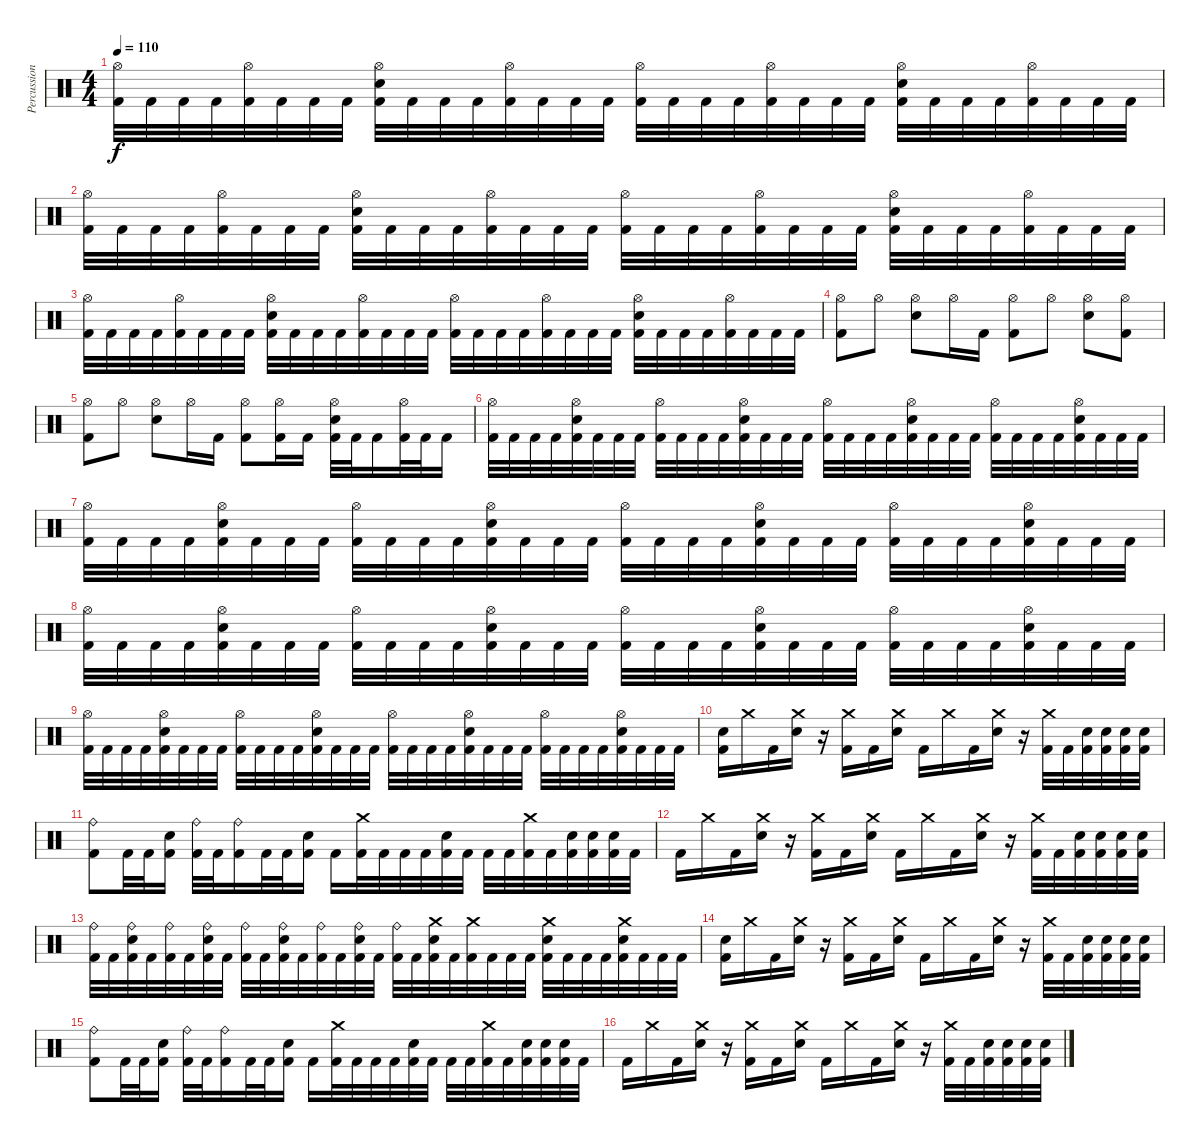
\track ("Percussion" "Percussion") {instrument percussion}
\staff {score}
\articulation defaults
\ts (4 4)
\tempo 110
\clef neutral
\ks c
("Hi-Hat (open)" "Kick (hit) 2").32{dy f} "Kick (hit) 2".32 "Kick (hit) 2".32 "Kick (hit) 2".32 ("Hi-Hat (open)" "Kick (hit) 2").32 "Kick (hit) 2".32 "Kick (hit) 2".32 "Kick (hit) 2".32 ("Hi-Hat (open)" "Electric Snare (hit)" "Kick (hit) 2").32 "Kick (hit) 2".32 "Kick (hit) 2".32 "Kick (hit) 2".32 ("Hi-Hat (open)" "Kick (hit) 2").32 "Kick (hit) 2".32 "Kick (hit) 2".32 "Kick (hit) 2".32 ("Hi-Hat (open)" "Kick (hit) 2").32 "Kick (hit) 2".32 "Kick (hit) 2".32 "Kick (hit) 2".32 ("Hi-Hat (open)" "Kick (hit) 2").32 "Kick (hit) 2".32 "Kick (hit) 2".32 "Kick (hit) 2".32 ("Hi-Hat (open)" "Electric Snare (hit)" "Kick (hit) 2").32 "Kick (hit) 2".32 "Kick (hit) 2".32 "Kick (hit) 2".32 ("Hi-Hat (open)" "Kick (hit) 2").32 "Kick (hit) 2".32 "Kick (hit) 2".32 "Kick (hit) 2".32 |
("Hi-Hat (open)" "Kick (hit) 2").32 "Kick (hit) 2".32 "Kick (hit) 2".32 "Kick (hit) 2".32 ("Hi-Hat (open)" "Kick (hit) 2").32 "Kick (hit) 2".32 "Kick (hit) 2".32 "Kick (hit) 2".32 ("Hi-Hat (open)" "Electric Snare (hit)" "Kick (hit) 2").32 "Kick (hit) 2".32 "Kick (hit) 2".32 "Kick (hit) 2".32 ("Hi-Hat (open)" "Kick (hit) 2").32 "Kick (hit) 2".32 "Kick (hit) 2".32 "Kick (hit) 2".32 ("Hi-Hat (open)" "Kick (hit) 2").32 "Kick (hit) 2".32 "Kick (hit) 2".32 "Kick (hit) 2".32 ("Hi-Hat (open)" "Kick (hit) 2").32 "Kick (hit) 2".32 "Kick (hit) 2".32 "Kick (hit) 2".32 ("Hi-Hat (open)" "Electric Snare (hit)" "Kick (hit) 2").32 "Kick (hit) 2".32 "Kick (hit) 2".32 "Kick (hit) 2".32 ("Hi-Hat (open)" "Kick (hit) 2").32 "Kick (hit) 2".32 "Kick (hit) 2".32 "Kick (hit) 2".32 |
("Hi-Hat (open)" "Kick (hit) 2").32 "Kick (hit) 2".32 "Kick (hit) 2".32 "Kick (hit) 2".32 ("Hi-Hat (open)" "Kick (hit) 2").32 "Kick (hit) 2".32 "Kick (hit) 2".32 "Kick (hit) 2".32 ("Hi-Hat (open)" "Electric Snare (hit)" "Kick (hit) 2").32 "Kick (hit) 2".32 "Kick (hit) 2".32 "Kick (hit) 2".32 ("Hi-Hat (open)" "Kick (hit) 2").32 "Kick (hit) 2".32 "Kick (hit) 2".32 "Kick (hit) 2".32 ("Hi-Hat (open)" "Kick (hit) 2").32 "Kick (hit) 2".32 "Kick (hit) 2".32 "Kick (hit) 2".32 ("Hi-Hat (open)" "Kick (hit) 2").32 "Kick (hit) 2".32 "Kick (hit) 2".32 "Kick (hit) 2".32 ("Hi-Hat (open)" "Electric Snare (hit)" "Kick (hit) 2").32 "Kick (hit) 2".32 "Kick (hit) 2".32 "Kick (hit) 2".32 ("Hi-Hat (open)" "Kick (hit) 2").32 "Kick (hit) 2".32 "Kick (hit) 2".32 "Kick (hit) 2".32 |
("Hi-Hat (open)" "Kick (hit) 2").8 "Hi-Hat (open)".8 ("Hi-Hat (open)" "Electric Snare (hit)").8 "Hi-Hat (open)".16 "Kick (hit) 2".16 ("Hi-Hat (open)" "Kick (hit) 2").8 "Hi-Hat (open)".8 ("Hi-Hat (open)" "Electric Snare (hit)").8 ("Hi-Hat (open)" "Kick (hit) 2").8 |
("Hi-Hat (open)" "Kick (hit) 2").8 "Hi-Hat (open)".8 ("Hi-Hat (open)" "Electric Snare (hit)").8 "Hi-Hat (open)".16 "Kick (hit) 2".16 ("Hi-Hat (open)" "Kick (hit) 2").8 ("Hi-Hat (open)" "Kick (hit) 2").16 "Kick (hit) 2".16 ("Hi-Hat (open)" "Electric Snare (hit)" "Kick (hit) 2").32 "Kick (hit) 2".32 "Kick (hit) 2".16 ("Hi-Hat (open)" "Kick (hit) 2").32 "Kick (hit) 2".32 "Kick (hit) 2".16 |
("Hi-Hat (open)" "Kick (hit) 2").32 "Kick (hit) 2".32 "Kick (hit) 2".32 "Kick (hit) 2".32 ("Hi-Hat (open)" "Electric Snare (hit)" "Kick (hit) 2").32 "Kick (hit) 2".32 "Kick (hit) 2".32 "Kick (hit) 2".32 ("Hi-Hat (open)" "Kick (hit) 2").32 "Kick (hit) 2".32 "Kick (hit) 2".32 "Kick (hit) 2".32 ("Hi-Hat (open)" "Electric Snare (hit)" "Kick (hit) 2").32 "Kick (hit) 2".32 "Kick (hit) 2".32 "Kick (hit) 2".32 ("Hi-Hat (open)" "Kick (hit) 2").32 "Kick (hit) 2".32 "Kick (hit) 2".32 "Kick (hit) 2".32 ("Hi-Hat (open)" "Electric Snare (hit)" "Kick (hit) 2").32 "Kick (hit) 2".32 "Kick (hit) 2".32 "Kick (hit) 2".32 ("Hi-Hat (open)" "Kick (hit) 2").32 "Kick (hit) 2".32 "Kick (hit) 2".32 "Kick (hit) 2".32 ("Hi-Hat (open)" "Electric Snare (hit)" "Kick (hit) 2").32 "Kick (hit) 2".32 "Kick (hit) 2".32 "Kick (hit) 2".32 |
("Hi-Hat (open)" "Kick (hit) 2").32 "Kick (hit) 2".32 "Kick (hit) 2".32 "Kick (hit) 2".32 ("Hi-Hat (open)" "Electric Snare (hit)" "Kick (hit) 2").32 "Kick (hit) 2".32 "Kick (hit) 2".32 "Kick (hit) 2".32 ("Hi-Hat (open)" "Kick (hit) 2").32 "Kick (hit) 2".32 "Kick (hit) 2".32 "Kick (hit) 2".32 ("Hi-Hat (open)" "Electric Snare (hit)" "Kick (hit) 2").32 "Kick (hit) 2".32 "Kick (hit) 2".32 "Kick (hit) 2".32 ("Hi-Hat (open)" "Kick (hit) 2").32 "Kick (hit) 2".32 "Kick (hit) 2".32 "Kick (hit) 2".32 ("Hi-Hat (open)" "Electric Snare (hit)" "Kick (hit) 2").32 "Kick (hit) 2".32 "Kick (hit) 2".32 "Kick (hit) 2".32 ("Hi-Hat (open)" "Kick (hit) 2").32 "Kick (hit) 2".32 "Kick (hit) 2".32 "Kick (hit) 2".32 ("Hi-Hat (open)" "Electric Snare (hit)" "Kick (hit) 2").32 "Kick (hit) 2".32 "Kick (hit) 2".32 "Kick (hit) 2".32 |
("Hi-Hat (open)" "Kick (hit) 2").32 "Kick (hit) 2".32 "Kick (hit) 2".32 "Kick (hit) 2".32 ("Hi-Hat (open)" "Electric Snare (hit)" "Kick (hit) 2").32 "Kick (hit) 2".32 "Kick (hit) 2".32 "Kick (hit) 2".32 ("Hi-Hat (open)" "Kick (hit) 2").32 "Kick (hit) 2".32 "Kick (hit) 2".32 "Kick (hit) 2".32 ("Hi-Hat (open)" "Electric Snare (hit)" "Kick (hit) 2").32 "Kick (hit) 2".32 "Kick (hit) 2".32 "Kick (hit) 2".32 ("Hi-Hat (open)" "Kick (hit) 2").32 "Kick (hit) 2".32 "Kick (hit) 2".32 "Kick (hit) 2".32 ("Hi-Hat (open)" "Electric Snare (hit)" "Kick (hit) 2").32 "Kick (hit) 2".32 "Kick (hit) 2".32 "Kick (hit) 2".32 ("Hi-Hat (open)" "Kick (hit) 2").32 "Kick (hit) 2".32 "Kick (hit) 2".32 "Kick (hit) 2".32 ("Hi-Hat (open)" "Electric Snare (hit)" "Kick (hit) 2").32 "Kick (hit) 2".32 "Kick (hit) 2".32 "Kick (hit) 2".32 |
("Hi-Hat (open)" "Kick (hit) 2").32 "Kick (hit) 2".32 "Kick (hit) 2".32 "Kick (hit) 2".32 ("Hi-Hat (open)" "Electric Snare (hit)" "Kick (hit) 2").32 "Kick (hit) 2".32 "Kick (hit) 2".32 "Kick (hit) 2".32 ("Hi-Hat (open)" "Kick (hit) 2").32 "Kick (hit) 2".32 "Kick (hit) 2".32 "Kick (hit) 2".32 ("Hi-Hat (open)" "Electric Snare (hit)" "Kick (hit) 2").32 "Kick (hit) 2".32 "Kick (hit) 2".32 "Kick (hit) 2".32 ("Hi-Hat (open)" "Kick (hit) 2").32 "Kick (hit) 2".32 "Kick (hit) 2".32 "Kick (hit) 2".32 ("Hi-Hat (open)" "Electric Snare (hit)" "Kick (hit) 2").32 "Kick (hit) 2".32 "Kick (hit) 2".32 "Kick (hit) 2".32 ("Hi-Hat (open)" "Kick (hit) 2").32 "Kick (hit) 2".32 "Kick (hit) 2".32 "Kick (hit) 2".32 ("Hi-Hat (open)" "Electric Snare (hit)" "Kick (hit) 2").32 "Kick (hit) 2".32 "Kick (hit) 2".32 "Kick (hit) 2".32 |
("Electric Snare (hit)" "Kick (hit) 2").16 "Crash medium (hit)".16 "Kick (hit) 2".16 ("Crash medium (hit)" "Electric Snare (hit)").16 r.16 ("Crash medium (hit)" "Kick (hit) 2").16 "Kick (hit) 2".16 ("Crash medium (hit)" "Electric Snare (hit)").16 "Kick (hit) 2".16 "Crash medium (hit)".16 "Kick (hit) 2".16 ("Crash medium (hit)" "Electric Snare (hit)").16 r.16 ("Crash medium (hit)" "Kick (hit) 2").32 "Kick (hit) 2".32 ("Electric Snare (hit)" "Kick (hit) 2").32 ("Electric Snare (hit)" "Kick (hit) 2").32 ("Electric Snare (hit)" "Kick (hit) 2").32 ("Electric Snare (hit)" "Kick (hit) 2").32 |
("Ride (bell)" "Kick (hit) 2").8 "Kick (hit) 2".32 "Kick (hit) 2".32 ("Electric Snare (hit)" "Kick (hit) 2").16 ("Ride (bell)" "Kick (hit) 2").32 "Kick (hit) 2".32 ("Ride (bell)" "Kick (hit) 2").16 "Kick (hit) 2".32 "Kick (hit) 2".32 ("Electric Snare (hit)" "Kick (hit) 2").16 "Kick (hit) 2".16 ("Crash medium (hit)" "Kick (hit) 2").32 "Kick (hit) 2".32 "Kick (hit) 2".32 "Kick (hit) 2".32 ("Electric Snare (hit)" "Kick (hit) 2").32 "Kick (hit) 2".32 "Kick (hit) 2".32 "Kick (hit) 2".32 ("Crash medium (hit)" "Kick (hit) 2").32 "Kick (hit) 2".32 ("Electric Snare (hit)" "Kick (hit) 2").32 ("Electric Snare (hit)" "Kick (hit) 2").32 ("Electric Snare (hit)" "Kick (hit) 2").32 "Kick (hit) 2".32 |
"Kick (hit) 2".16 "Crash medium (hit)".16 "Kick (hit) 2".16 ("Crash medium (hit)" "Electric Snare (hit)").16 r.16 ("Crash medium (hit)" "Kick (hit) 2").16 "Kick (hit) 2".16 ("Crash medium (hit)" "Electric Snare (hit)").16 "Kick (hit) 2".16 "Crash medium (hit)".16 "Kick (hit) 2".16 ("Crash medium (hit)" "Electric Snare (hit)").16 r.16 ("Crash medium (hit)" "Kick (hit) 2").32 "Kick (hit) 2".32 ("Electric Snare (hit)" "Kick (hit) 2").32 ("Electric Snare (hit)" "Kick (hit) 2").32 ("Electric Snare (hit)" "Kick (hit) 2").32 ("Electric Snare (hit)" "Kick (hit) 2").32 |
("Ride (bell)" "Kick (hit) 2").32 "Kick (hit) 2".32 ("Ride (bell)" "Electric Snare (hit)" "Kick (hit) 2").32 "Kick (hit) 2".32 ("Ride (bell)" "Kick (hit) 2").32 "Kick (hit) 2".32 ("Ride (bell)" "Electric Snare (hit)" "Kick (hit) 2").32 "Kick (hit) 2".32 ("Ride (bell)" "Kick (hit) 2").32 "Kick (hit) 2".32 ("Ride (bell)" "Electric Snare (hit)" "Kick (hit) 2").32 "Kick (hit) 2".32 ("Ride (bell)" "Kick (hit) 2").32 "Kick (hit) 2".32 ("Ride (bell)" "Electric Snare (hit)" "Kick (hit) 2").32 "Kick (hit) 2".32 ("Ride (bell)" "Kick (hit) 2").32 "Kick (hit) 2".32 ("Crash medium (hit)" "Electric Snare (hit)" "Kick (hit) 2").32 "Kick (hit) 2".32 ("Crash medium (hit)" "Kick (hit) 2").32 "Kick (hit) 2".32 "Kick (hit) 2".32 "Kick (hit) 2".32 ("Crash medium (hit)" "Electric Snare (hit)" "Kick (hit) 2").32 "Kick (hit) 2".32 "Kick (hit) 2".32 "Kick (hit) 2".32 ("Crash medium (hit)" "Electric Snare (hit)" "Kick (hit) 2").32 "Kick (hit) 2".32 "Kick (hit) 2".32 "Kick (hit) 2".32 |
("Electric Snare (hit)" "Kick (hit) 2").16 "Crash medium (hit)".16 "Kick (hit) 2".16 ("Crash medium (hit)" "Electric Snare (hit)").16 r.16 ("Crash medium (hit)" "Kick (hit) 2").16 "Kick (hit) 2".16 ("Crash medium (hit)" "Electric Snare (hit)").16 "Kick (hit) 2".16 "Crash medium (hit)".16 "Kick (hit) 2".16 ("Crash medium (hit)" "Electric Snare (hit)").16 r.16 ("Crash medium (hit)" "Kick (hit) 2").32 "Kick (hit) 2".32 ("Electric Snare (hit)" "Kick (hit) 2").32 ("Electric Snare (hit)" "Kick (hit) 2").32 ("Electric Snare (hit)" "Kick (hit) 2").32 ("Electric Snare (hit)" "Kick (hit) 2").32 |
("Ride (bell)" "Kick (hit) 2").8 "Kick (hit) 2".32 "Kick (hit) 2".32 ("Electric Snare (hit)" "Kick (hit) 2").16 ("Ride (bell)" "Kick (hit) 2").32 "Kick (hit) 2".32 ("Ride (bell)" "Kick (hit) 2").16 "Kick (hit) 2".32 "Kick (hit) 2".32 ("Electric Snare (hit)" "Kick (hit) 2").16 "Kick (hit) 2".16 ("Crash medium (hit)" "Kick (hit) 2").32 "Kick (hit) 2".32 "Kick (hit) 2".32 "Kick (hit) 2".32 ("Electric Snare (hit)" "Kick (hit) 2").32 "Kick (hit) 2".32 "Kick (hit) 2".32 "Kick (hit) 2".32 ("Crash medium (hit)" "Kick (hit) 2").32 "Kick (hit) 2".32 ("Electric Snare (hit)" "Kick (hit) 2").32 ("Electric Snare (hit)" "Kick (hit) 2").32 ("Electric Snare (hit)" "Kick (hit) 2").32 "Kick (hit) 2".32 |
"Kick (hit) 2".16 "Crash medium (hit)".16 "Kick (hit) 2".16 ("Crash medium (hit)" "Electric Snare (hit)").16 r.16 ("Crash medium (hit)" "Kick (hit) 2").16 "Kick (hit) 2".16 ("Crash medium (hit)" "Electric Snare (hit)").16 "Kick (hit) 2".16 "Crash medium (hit)".16 "Kick (hit) 2".16 ("Crash medium (hit)" "Electric Snare (hit)").16 r.16 ("Crash medium (hit)" "Kick (hit) 2").32 "Kick (hit) 2".32 ("Electric Snare (hit)" "Kick (hit) 2").32 ("Electric Snare (hit)" "Kick (hit) 2").32 ("Electric Snare (hit)" "Kick (hit) 2").32 ("Electric Snare (hit)" "Kick (hit) 2").32
